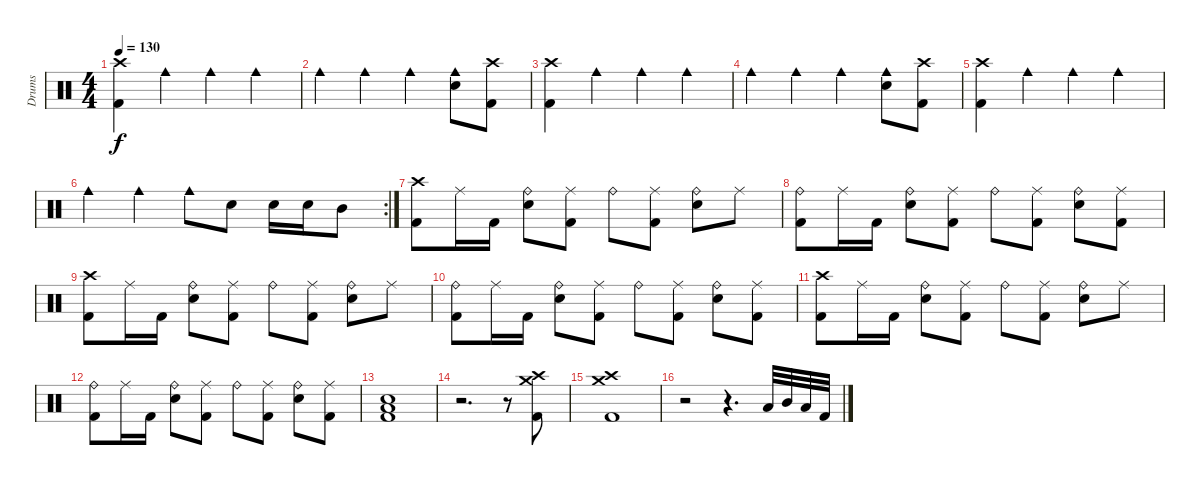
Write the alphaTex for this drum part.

\track ("Drums" "Drums") {instrument percussion}
\staff {score}
\articulation defaults
\ts (4 4)
\tempo 130
\clef neutral
\ks c
("Crash high (hit)" "Kick (hit) 2").4{dy f} "Cowbell medium (hit)".4 "Cowbell medium (hit)".4 "Cowbell medium (hit)".4 |
"Cowbell medium (hit)".4 "Cowbell medium (hit)".4 "Cowbell medium (hit)".4 ("Cowbell medium (hit)" "Electric Snare (hit)").8 ("Crash high (hit)" "Kick (hit) 2").8 |
("Crash high (hit)" "Kick (hit) 2").4 "Cowbell medium (hit)".4 "Cowbell medium (hit)".4 "Cowbell medium (hit)".4 |
"Cowbell medium (hit)".4 "Cowbell medium (hit)".4 "Cowbell medium (hit)".4 ("Cowbell medium (hit)" "Electric Snare (hit)").8 ("Crash high (hit)" "Kick (hit) 2").8 |
("Crash high (hit)" "Kick (hit) 2").4 "Cowbell medium (hit)".4 "Cowbell medium (hit)".4 "Cowbell medium (hit)".4 |
\rc 2 "Cowbell medium (hit)".4 "Cowbell medium (hit)".4 "Cowbell medium (hit)".8 "Electric Snare (hit)".8 "Electric Snare (hit)".16 "Electric Snare (hit)".16 "Mid Tom (hit)".8
|
("Crash high (hit)" "Kick (hit) 2").8 "Ride (middle)".16 "Kick (hit) 2".16 ("Ride (bell)" "Electric Snare (hit)").8 ("Ride (middle)" "Kick (hit) 2").8 "Ride (bell)".8 ("Ride (middle)" "Kick (hit) 2").8 ("Ride (bell)" "Electric Snare (hit)").8 "Ride (middle)".8 |
("Ride (bell)" "Kick (hit) 2").8 "Ride (middle)".16 "Kick (hit) 2".16 ("Ride (bell)" "Electric Snare (hit)").8 ("Ride (middle)" "Kick (hit) 2").8 "Ride (bell)".8 ("Ride (middle)" "Kick (hit) 2").8 ("Ride (bell)" "Electric Snare (hit)").8 ("Ride (middle)" "Kick (hit) 2").8 |
("Crash high (hit)" "Kick (hit) 2").8 "Ride (middle)".16 "Kick (hit) 2".16 ("Ride (bell)" "Electric Snare (hit)").8 ("Ride (middle)" "Kick (hit) 2").8 "Ride (bell)".8 ("Ride (middle)" "Kick (hit) 2").8 ("Ride (bell)" "Electric Snare (hit)").8 "Ride (middle)".8 |
("Ride (bell)" "Kick (hit) 2").8 "Ride (middle)".16 "Kick (hit) 2".16 ("Ride (bell)" "Electric Snare (hit)").8 ("Ride (middle)" "Kick (hit) 2").8 "Ride (bell)".8 ("Ride (middle)" "Kick (hit) 2").8 ("Ride (bell)" "Electric Snare (hit)").8 ("Ride (middle)" "Kick (hit) 2").8 |
("Crash high (hit)" "Kick (hit) 2").8 "Ride (middle)".16 "Kick (hit) 2".16 ("Ride (bell)" "Electric Snare (hit)").8 ("Ride (middle)" "Kick (hit) 2").8 "Ride (bell)".8 ("Ride (middle)" "Kick (hit) 2").8 ("Ride (bell)" "Electric Snare (hit)").8 "Ride (middle)".8 |
("Ride (bell)" "Kick (hit) 2").8 "Ride (middle)".16 "Kick (hit) 2".16 ("Ride (bell)" "Electric Snare (hit)").8 ("Ride (middle)" "Kick (hit) 2").8 "Ride (bell)".8 ("Ride (middle)" "Kick (hit) 2").8 ("Ride (bell)" "Electric Snare (hit)").8 ("Ride (middle)" "Kick (hit) 2").8 |
("Electric Snare (hit)" "Low Floor Tom (hit)" "Kick (hit) 2").1 |
r.2{d} r.8 ("Crash high (hit)" "Crash medium (hit)" "Kick (hit) 2").8 |
("Crash high (hit)" "Crash medium (hit)" "Kick (hit) 2").1 |
r.2 r.4{d} "Low Tom (hit)".32 "Mid Tom (hit)".32 "Low Floor Tom (hit)".32 "Kick (hit) 2".32
